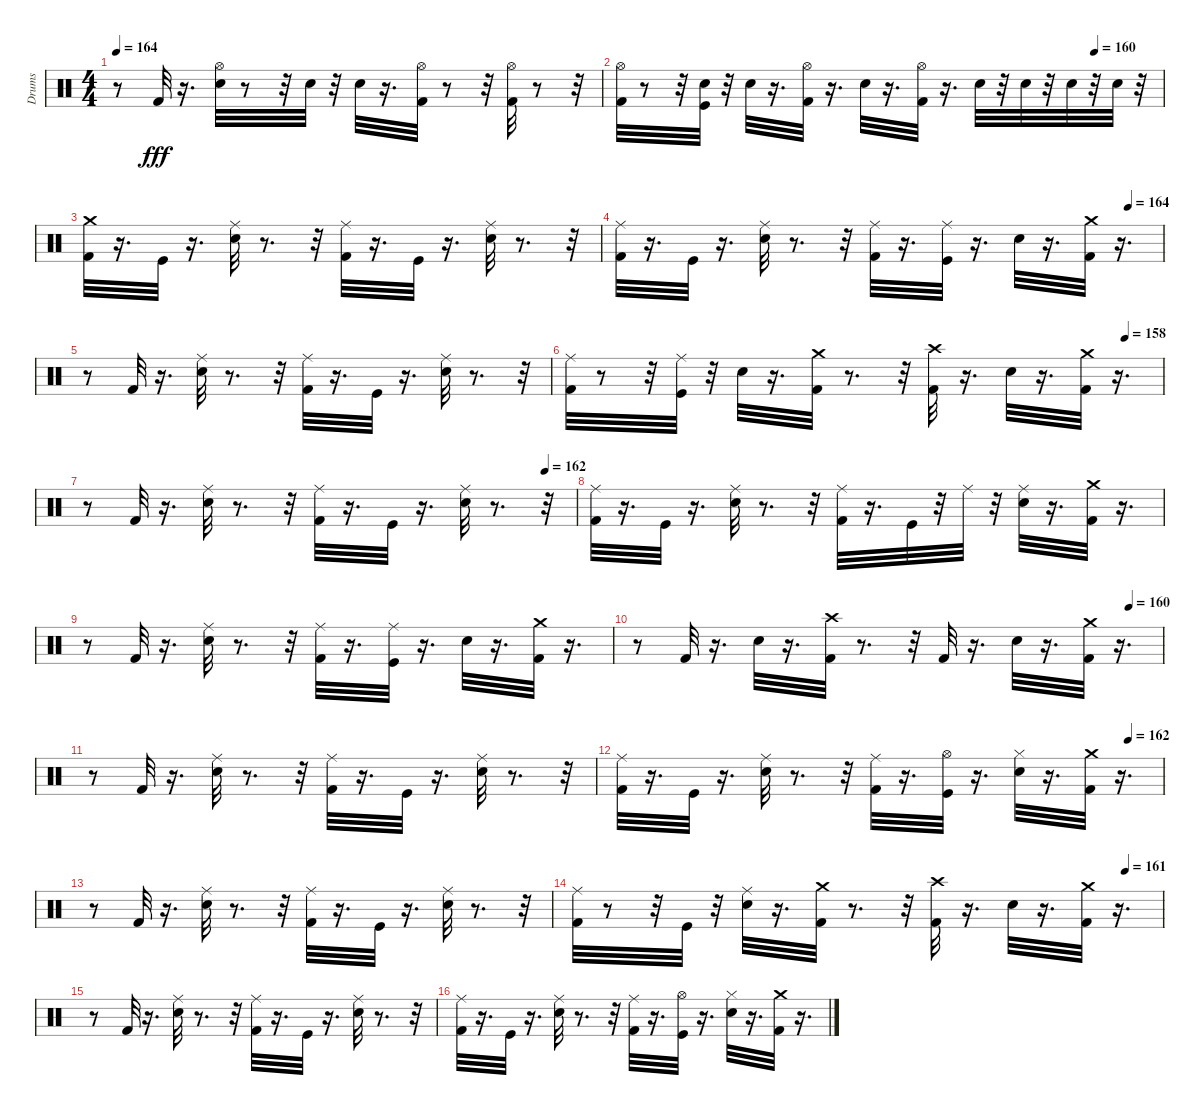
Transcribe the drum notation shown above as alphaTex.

\track ("Drums" "Drums") {instrument percussion}
\staff {score}
\articulation defaults
\ts (4 4)
\tempo 164
\clef neutral
\ks c
r.8{dy fff} "Kick (hit) 2".32 r.16{d} ("Snare (hit) 2" "Hi-Hat (open)").32 r.8 r.32 "Snare (hit) 2".32 r.32 "Snare (hit) 2".32 r.16{d} ("Kick (hit) 2" "Hi-Hat (open)").32 r.8 r.32 ("Hi-Hat (open)" "Kick (hit) 2").32 r.8 r.32 |
\tempo (160 0.875)
("Kick (hit) 2" "Hi-Hat (open)").32 r.8 r.32 ("Snare (hit) 2" "Kick (hit)").32 r.32 "Snare (hit) 2".32 r.16{d} ("Kick (hit) 2" "Hi-Hat (open)").32 r.16{d} "Snare (hit) 2".32 r.16{d} ("Kick (hit) 2" "Hi-Hat (open)").32 r.16{d} "Snare (hit) 2".32 r.32 "Snare (hit) 2".32 r.32 "Snare (hit) 2".32 r.32 "Snare (hit) 2".32 r.32 |
("Kick (hit) 2" "Crash medium (hit)").32 r.16{d} "Kick (hit)".32 r.16{d} ("Snare (hit) 2" "Ride (middle)").32 r.8{d} r.32 ("Kick (hit) 2" "Ride (middle)").32 r.16{d} "Kick (hit)".32 r.16{d} ("Snare (hit) 2" "Ride (middle)").32 r.8{d} r.32 |
\tempo (164 0.9375)
("Kick (hit) 2" "Ride (middle)").32 r.16{d} "Kick (hit)".32 r.16{d} ("Snare (hit) 2" "Ride (middle)").32 r.8{d} r.32 ("Kick (hit) 2" "Ride (middle)").32 r.16{d} ("Kick (hit)" "Ride (middle)").32 r.16{d} "Snare (hit) 2".32 r.16{d} ("Crash medium (hit)" "Kick (hit) 2").32 r.16{d} |
r.8 "Kick (hit) 2".32 r.16{d} ("Snare (hit) 2" "Ride (middle)").32 r.8{d} r.32 ("Kick (hit) 2" "Ride (middle)").32 r.16{d} "Kick (hit)".32 r.16{d} ("Snare (hit) 2" "Ride (middle)").32 r.8{d} r.32 |
\tempo (158 0.9375)
("Kick (hit) 2" "Ride (middle)").32 r.8 r.32 ("Kick (hit)" "Ride (middle)").32 r.32 "Snare (hit) 2".32 r.16{d} ("Kick (hit) 2" "Crash medium (hit)").32 r.8{d} r.32 ("Kick (hit) 2" "Crash high (hit)").32 r.16{d} "Snare (hit) 2".32 r.16{d} ("Kick (hit) 2" "Crash medium (hit)").32 r.16{d} |
\tempo (162 0.9375)
r.8 "Kick (hit) 2".32 r.16{d} ("Snare (hit) 2" "Ride (middle)").32 r.8{d} r.32 ("Kick (hit) 2" "Ride (middle)").32 r.16{d} "Kick (hit)".32 r.16{d} ("Snare (hit) 2" "Ride (middle)").32 r.8{d} r.32 |
("Kick (hit) 2" "Ride (middle)").32 r.16{d} "Kick (hit)".32 r.16{d} ("Snare (hit) 2" "Ride (middle)").32 r.8{d} r.32 ("Kick (hit) 2" "Ride (middle)").32 r.16{d} "Kick (hit)".32 r.32 "Ride (middle)".32 r.32 ("Snare (hit) 2" "Ride (middle)").32 r.16{d} ("Kick (hit) 2" "Crash medium (hit)").32 r.16{d} |
r.8 "Kick (hit) 2".32 r.16{d} ("Snare (hit) 2" "Ride (middle)").32 r.8{d} r.32 ("Kick (hit) 2" "Ride (middle)").32 r.16{d} ("Kick (hit)" "Ride (middle)").32 r.16{d} "Snare (hit) 2".32 r.16{d} ("Kick (hit) 2" "Crash medium (hit)").32 r.16{d} |
\tempo (160 0.9375)
r.8 "Kick (hit) 2".32 r.16{d} "Snare (hit) 2".32 r.16{d} ("Crash high (hit)" "Kick (hit) 2").32 r.8{d} r.32 "Kick (hit) 2".32 r.16{d} "Snare (hit) 2".32 r.16{d} ("Crash medium (hit)" "Kick (hit) 2").32 r.16{d} |
r.8 "Kick (hit) 2".32 r.16{d} ("Snare (hit) 2" "Ride (middle)").32 r.8{d} r.32 ("Kick (hit) 2" "Ride (middle)").32 r.16{d} "Kick (hit)".32 r.16{d} ("Snare (hit) 2" "Ride (middle)").32 r.8{d} r.32 |
\tempo (162 0.9375)
("Kick (hit) 2" "Ride (middle)").32 r.16{d} "Kick (hit)".32 r.16{d} ("Snare (hit) 2" "Ride (middle)").32 r.8{d} r.32 ("Kick (hit) 2" "Ride (middle)").32 r.16{d} ("Kick (hit)" "Hi-Hat (open)").32 r.16{d} ("Snare (hit) 2" "Hi-Hat (closed)").32 r.16{d} ("Kick (hit) 2" "Crash medium (hit)").32 r.16{d} |
r.8 "Kick (hit) 2".32 r.16{d} ("Snare (hit) 2" "Ride (middle)").32 r.8{d} r.32 ("Kick (hit) 2" "Ride (middle)").32 r.16{d} "Kick (hit)".32 r.16{d} ("Snare (hit) 2" "Ride (middle)").32 r.8{d} r.32 |
\tempo (161 0.9375)
("Kick (hit) 2" "Ride (middle)").32 r.8 r.32 "Kick (hit)".32 r.32 ("Snare (hit) 2" "Ride (middle)").32 r.16{d} ("Kick (hit) 2" "Crash medium (hit)").32 r.8{d} r.32 ("Kick (hit) 2" "Crash high (hit)").32 r.16{d} "Snare (hit) 2".32 r.16{d} ("Kick (hit) 2" "Crash medium (hit)").32 r.16{d} |
r.8 "Kick (hit) 2".32 r.16{d} ("Snare (hit) 2" "Ride (middle)").32 r.8{d} r.32 ("Kick (hit) 2" "Ride (middle)").32 r.16{d} "Kick (hit)".32 r.16{d} ("Snare (hit) 2" "Ride (middle)").32 r.8{d} r.32 |
("Kick (hit) 2" "Ride (middle)").32 r.16{d} "Kick (hit)".32 r.16{d} ("Snare (hit) 2" "Ride (middle)").32 r.8{d} r.32 ("Kick (hit) 2" "Ride (middle)").32 r.16{d} ("Kick (hit)" "Hi-Hat (open)").32 r.16{d} ("Snare (hit) 2" "Hi-Hat (closed)").32 r.16{d} ("Kick (hit) 2" "Crash medium (hit)").32 r.16{d}
